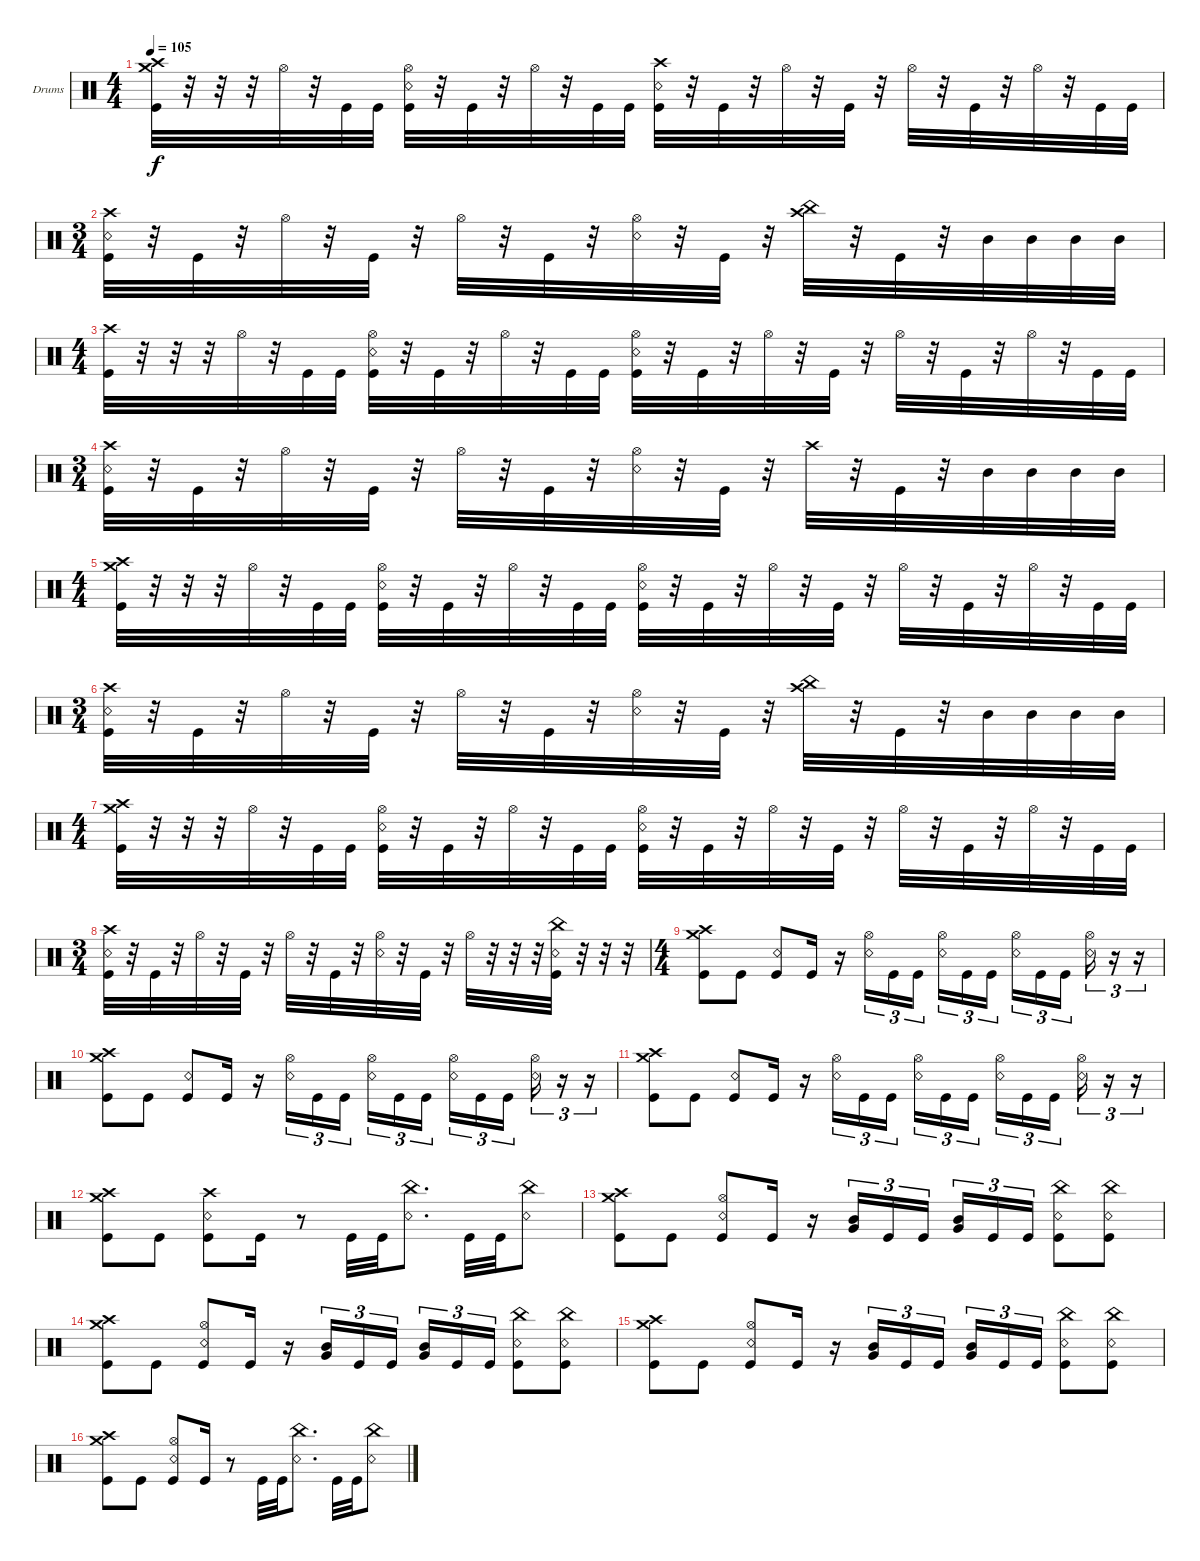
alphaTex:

\bracketExtendMode groupsimilarinstruments
\firstSystemTrackNameOrientation horizontal
\otherSystemsTrackNameOrientation horizontal
\track ("[STEWART]" "Drums") {instrument percussion}
\staff {score}
\articulation defaults
\ts (4 4)
\tempo 105
\clef neutral
\ks c
("Crash high (hit)" "Crash medium (hit)" "Kick (hit)").32{dy f} r.32 r.32 r.32 "Hi-Hat (open)".32 r.32 "Kick (hit)".32 "Kick (hit)".32 ("Hi-Hat (open)" "Kick (hit)" "Snare (rim shot)").32 r.32 "Kick (hit)".32 r.32 "Hi-Hat (open)".32 r.32 "Kick (hit)".32 "Kick (hit)".32 ("Snare (rim shot)" "Kick (hit)" "Crash high (hit)").32 r.32 "Kick (hit)".32 r.32 "Hi-Hat (open)".32 r.32 "Kick (hit)".32 r.32 "Hi-Hat (open)".32 r.32 "Kick (hit)".32 r.32 "Hi-Hat (open)".32 r.32 "Kick (hit)".32 "Kick (hit)".32 |
\ts (3 4)
("Kick (hit)" "Snare (rim shot)" "Crash high (hit)").32 r.32 "Kick (hit)".32 r.32 "Hi-Hat (open)".32 r.32 "Kick (hit)".32 r.32 "Hi-Hat (open)".32 r.32 "Kick (hit)".32 r.32 ("Hi-Hat (open)" "Snare (rim shot)").32 r.32 "Kick (hit)".32 r.32 ("China (hit)" "Crash high (hit)").32 r.32 "Kick (hit)".32 r.32 "Mid Tom (hit)".32 "Mid Tom (hit)".32 "Mid Tom (hit)".32 "Mid Tom (hit)".32 |
\ts (4 4)
("Crash high (hit)" "Kick (hit)").32 r.32 r.32 r.32 "Hi-Hat (open)".32 r.32 "Kick (hit)".32 "Kick (hit)".32 ("Hi-Hat (open)" "Kick (hit)" "Snare (rim shot)").32 r.32 "Kick (hit)".32 r.32 "Hi-Hat (open)".32 r.32 "Kick (hit)".32 "Kick (hit)".32 ("Hi-Hat (open)" "Snare (rim shot)" "Kick (hit)").32 r.32 "Kick (hit)".32 r.32 "Hi-Hat (open)".32 r.32 "Kick (hit)".32 r.32 "Hi-Hat (open)".32 r.32 "Kick (hit)".32 r.32 "Hi-Hat (open)".32 r.32 "Kick (hit)".32 "Kick (hit)".32 |
\ts (3 4)
("Kick (hit)" "Snare (rim shot)" "Crash high (hit)").32 r.32 "Kick (hit)".32 r.32 "Hi-Hat (open)".32 r.32 "Kick (hit)".32 r.32 "Hi-Hat (open)".32 r.32 "Kick (hit)".32 r.32 ("Hi-Hat (open)" "Snare (rim shot)").32 r.32 "Kick (hit)".32 r.32 "Crash high (hit)".32 r.32 "Kick (hit)".32 r.32 "Mid Tom (hit)".32 "Mid Tom (hit)".32 "Mid Tom (hit)".32 "Mid Tom (hit)".32 |
\ts (4 4)
("Crash high (hit)" "Crash medium (hit)" "Kick (hit)").32 r.32 r.32 r.32 "Hi-Hat (open)".32 r.32 "Kick (hit)".32 "Kick (hit)".32 ("Hi-Hat (open)" "Kick (hit)" "Snare (rim shot)").32 r.32 "Kick (hit)".32 r.32 "Hi-Hat (open)".32 r.32 "Kick (hit)".32 "Kick (hit)".32 ("Hi-Hat (open)" "Snare (rim shot)" "Kick (hit)").32 r.32 "Kick (hit)".32 r.32 "Hi-Hat (open)".32 r.32 "Kick (hit)".32 r.32 "Hi-Hat (open)".32 r.32 "Kick (hit)".32 r.32 "Hi-Hat (open)".32 r.32 "Kick (hit)".32 "Kick (hit)".32 |
\ts (3 4)
("Kick (hit)" "Snare (rim shot)" "Crash high (hit)").32 r.32 "Kick (hit)".32 r.32 "Hi-Hat (open)".32 r.32 "Kick (hit)".32 r.32 "Hi-Hat (open)".32 r.32 "Kick (hit)".32 r.32 ("Hi-Hat (open)" "Snare (rim shot)").32 r.32 "Kick (hit)".32 r.32 ("Crash high (hit)" "China (hit)").32 r.32 "Kick (hit)".32 r.32 "Mid Tom (hit)".32 "Mid Tom (hit)".32 "Mid Tom (hit)".32 "Mid Tom (hit)".32 |
\ts (4 4)
("Crash high (hit)" "Crash medium (hit)" "Kick (hit)").32 r.32 r.32 r.32 "Hi-Hat (open)".32 r.32 "Kick (hit)".32 "Kick (hit)".32 ("Hi-Hat (open)" "Kick (hit)" "Snare (rim shot)").32 r.32 "Kick (hit)".32 r.32 "Hi-Hat (open)".32 r.32 "Kick (hit)".32 "Kick (hit)".32 ("Hi-Hat (open)" "Snare (rim shot)" "Kick (hit)").32 r.32 "Kick (hit)".32 r.32 "Hi-Hat (open)".32 r.32 "Kick (hit)".32 r.32 "Hi-Hat (open)".32 r.32 "Kick (hit)".32 r.32 "Hi-Hat (open)".32 r.32 "Kick (hit)".32 "Kick (hit)".32 |
\ts (3 4)
("Kick (hit)" "Snare (rim shot)" "Crash high (hit)").32 r.32 "Kick (hit)".32 r.32 "Hi-Hat (open)".32 r.32 "Kick (hit)".32 r.32 "Hi-Hat (open)".32 r.32 "Kick (hit)".32 r.32 ("Hi-Hat (open)" "Snare (rim shot)").32 r.32 "Kick (hit)".32 r.32 "Hi-Hat (open)".32 r.32 r.32 r.32 ("Kick (hit)" "Snare (rim shot)" "China (hit)").32 r.32 r.32 r.32 |
\ts (4 4)
("Kick (hit)" "Crash medium (hit)" "Crash high (hit)").8 "Kick (hit)".8 ("Kick (hit)" "Snare (rim shot)").8 "Kick (hit)".16 r.16 ("Snare (rim shot)" "Hi-Hat (open)").16{tu (3 2)} "Kick (hit)".16{tu (3 2)} "Kick (hit)".16{tu (3 2)} ("Snare (rim shot)" "Hi-Hat (open)").16{tu (3 2)} "Kick (hit)".16{tu (3 2)} "Kick (hit)".16{tu (3 2)} ("Snare (rim shot)" "Hi-Hat (open)").16{tu (3 2)} "Kick (hit)".16{tu (3 2)} "Kick (hit)".16{tu (3 2)} ("Snare (rim shot)" "Hi-Hat (open)").16{tu (3 2)} r.16{tu (3 2)} r.16{tu (3 2)} |
("Kick (hit)" "Crash medium (hit)" "Crash high (hit)").8 "Kick (hit)".8 ("Snare (rim shot)" "Kick (hit)").8 "Kick (hit)".16 r.16 ("Snare (rim shot)" "Hi-Hat (open)").16{tu (3 2)} "Kick (hit)".16{tu (3 2)} "Kick (hit)".16{tu (3 2)} ("Snare (rim shot)" "Hi-Hat (open)").16{tu (3 2)} "Kick (hit)".16{tu (3 2)} "Kick (hit)".16{tu (3 2)} ("Snare (rim shot)" "Hi-Hat (open)").16{tu (3 2)} "Kick (hit)".16{tu (3 2)} "Kick (hit)".16{tu (3 2)} ("Snare (rim shot)" "Hi-Hat (open)").16{tu (3 2)} r.16{tu (3 2)} r.16{tu (3 2)} |
("Kick (hit)" "Crash medium (hit)" "Crash high (hit)").8 "Kick (hit)".8 ("Snare (rim shot)" "Kick (hit)").8 "Kick (hit)".16 r.16 ("Snare (rim shot)" "Hi-Hat (open)").16{tu (3 2)} "Kick (hit)".16{tu (3 2)} "Kick (hit)".16{tu (3 2)} ("Snare (rim shot)" "Hi-Hat (open)").16{tu (3 2)} "Kick (hit)".16{tu (3 2)} "Kick (hit)".16{tu (3 2)} ("Snare (rim shot)" "Hi-Hat (open)").16{tu (3 2)} "Kick (hit)".16{tu (3 2)} "Kick (hit)".16{tu (3 2)} ("Snare (rim shot)" "Hi-Hat (open)").16{tu (3 2)} r.16{tu (3 2)} r.16{tu (3 2)} |
("Kick (hit)" "Crash high (hit)" "Crash medium (hit)").8 "Kick (hit)".8 ("Snare (rim shot)" "Kick (hit)" "Crash high (hit)").8 "Kick (hit)".16 r.8 "Kick (hit)".32 "Kick (hit)".32 ("Snare (rim shot)" "China (hit)").8{d} "Kick (hit)".32 "Kick (hit)".32 ("Snare (rim shot)" "China (hit)").8 |
("Kick (hit)" "Crash medium (hit)" "Crash high (hit)").8 "Kick (hit)".8 ("Snare (rim shot)" "Kick (hit)" "Hi-Hat (open)").8 "Kick (hit)".16 r.16 ("Mid Tom (hit)" "Very Low Tom (hit)").16{tu (3 2)} "Kick (hit)".16{tu (3 2)} "Kick (hit)".16{tu (3 2)} ("Very Low Tom (hit)" "Mid Tom (hit)").16{tu (3 2)} "Kick (hit)".16{tu (3 2)} "Kick (hit)".16{tu (3 2)} ("Kick (hit)" "China (hit)" "Snare (rim shot)").8 ("Kick (hit)" "Snare (rim shot)" "China (hit)").8 |
("Kick (hit)" "Crash medium (hit)" "Crash high (hit)").8 "Kick (hit)".8 ("Snare (rim shot)" "Kick (hit)" "Hi-Hat (open)").8 "Kick (hit)".16 r.16 ("Mid Tom (hit)" "Very Low Tom (hit)").16{tu (3 2)} "Kick (hit)".16{tu (3 2)} "Kick (hit)".16{tu (3 2)} ("Very Low Tom (hit)" "Mid Tom (hit)").16{tu (3 2)} "Kick (hit)".16{tu (3 2)} "Kick (hit)".16{tu (3 2)} ("Kick (hit)" "China (hit)" "Snare (rim shot)").8 ("Kick (hit)" "Snare (rim shot)" "China (hit)").8 |
("Kick (hit)" "Crash medium (hit)" "Crash high (hit)").8 "Kick (hit)".8 ("Snare (rim shot)" "Kick (hit)" "Hi-Hat (open)").8 "Kick (hit)".16 r.16 ("Mid Tom (hit)" "Very Low Tom (hit)").16{tu (3 2)} "Kick (hit)".16{tu (3 2)} "Kick (hit)".16{tu (3 2)} ("Very Low Tom (hit)" "Mid Tom (hit)").16{tu (3 2)} "Kick (hit)".16{tu (3 2)} "Kick (hit)".16{tu (3 2)} ("Kick (hit)" "China (hit)" "Snare (rim shot)").8 ("Kick (hit)" "Snare (rim shot)" "China (hit)").8 |
("Kick (hit)" "Crash medium (hit)" "Crash high (hit)").8 "Kick (hit)".8 ("Snare (rim shot)" "Kick (hit)" "Hi-Hat (open)").8 "Kick (hit)".16 r.8 "Kick (hit)".32 "Kick (hit)".32 ("Snare (rim shot)" "China (hit)").8{d} "Kick (hit)".32 "Kick (hit)".32 ("Snare (rim shot)" "China (hit)").8
